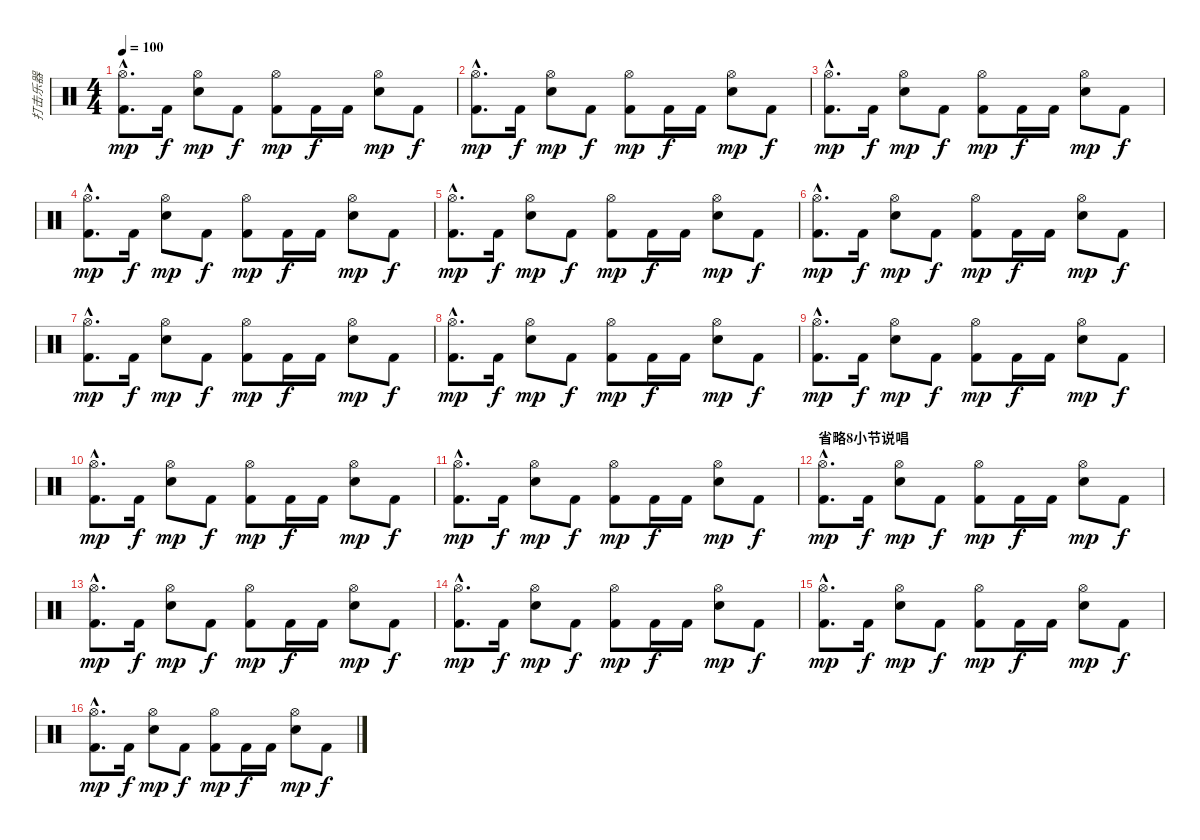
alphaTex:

\track ("打击乐器" "打击乐器") {instrument percussion}
\staff {score}
\articulation defaults
\ts (4 4)
\tempo 100
\clef neutral
\ks c
("Kick (hit) 2"{hac} "Hi-Hat (open)"{hac}).8{d dy mp} "Kick (hit) 2".16{dy f} ("Electric Snare (hit)" "Hi-Hat (open)").8{dy mp} "Kick (hit) 2".8{dy f} ("Kick (hit) 2" "Hi-Hat (open)").8{dy mp} "Kick (hit) 2".16{dy f} "Kick (hit) 2".16 ("Electric Snare (hit)" "Hi-Hat (open)").8{dy mp} "Kick (hit) 2".8{dy f} |
("Kick (hit) 2"{hac} "Hi-Hat (open)"{hac}).8{d dy mp} "Kick (hit) 2".16{dy f} ("Electric Snare (hit)" "Hi-Hat (open)").8{dy mp} "Kick (hit) 2".8{dy f} ("Kick (hit) 2" "Hi-Hat (open)").8{dy mp} "Kick (hit) 2".16{dy f} "Kick (hit) 2".16 ("Electric Snare (hit)" "Hi-Hat (open)").8{dy mp} "Kick (hit) 2".8{dy f} |
("Kick (hit) 2"{hac} "Hi-Hat (open)"{hac}).8{d dy mp} "Kick (hit) 2".16{dy f} ("Electric Snare (hit)" "Hi-Hat (open)").8{dy mp} "Kick (hit) 2".8{dy f} ("Kick (hit) 2" "Hi-Hat (open)").8{dy mp} "Kick (hit) 2".16{dy f} "Kick (hit) 2".16 ("Electric Snare (hit)" "Hi-Hat (open)").8{dy mp} "Kick (hit) 2".8{dy f} |
("Kick (hit) 2"{hac} "Hi-Hat (open)"{hac}).8{d dy mp} "Kick (hit) 2".16{dy f} ("Electric Snare (hit)" "Hi-Hat (open)").8{dy mp} "Kick (hit) 2".8{dy f} ("Kick (hit) 2" "Hi-Hat (open)").8{dy mp} "Kick (hit) 2".16{dy f} "Kick (hit) 2".16 ("Electric Snare (hit)" "Hi-Hat (open)").8{dy mp} "Kick (hit) 2".8{dy f} |
("Kick (hit) 2"{hac} "Hi-Hat (open)"{hac}).8{d dy mp} "Kick (hit) 2".16{dy f} ("Electric Snare (hit)" "Hi-Hat (open)").8{dy mp} "Kick (hit) 2".8{dy f} ("Kick (hit) 2" "Hi-Hat (open)").8{dy mp} "Kick (hit) 2".16{dy f} "Kick (hit) 2".16 ("Electric Snare (hit)" "Hi-Hat (open)").8{dy mp} "Kick (hit) 2".8{dy f} |
("Kick (hit) 2"{hac} "Hi-Hat (open)"{hac}).8{d dy mp} "Kick (hit) 2".16{dy f} ("Electric Snare (hit)" "Hi-Hat (open)").8{dy mp} "Kick (hit) 2".8{dy f} ("Kick (hit) 2" "Hi-Hat (open)").8{dy mp} "Kick (hit) 2".16{dy f} "Kick (hit) 2".16 ("Electric Snare (hit)" "Hi-Hat (open)").8{dy mp} "Kick (hit) 2".8{dy f} |
("Kick (hit) 2"{hac} "Hi-Hat (open)"{hac}).8{d dy mp} "Kick (hit) 2".16{dy f} ("Electric Snare (hit)" "Hi-Hat (open)").8{dy mp} "Kick (hit) 2".8{dy f} ("Kick (hit) 2" "Hi-Hat (open)").8{dy mp} "Kick (hit) 2".16{dy f} "Kick (hit) 2".16 ("Electric Snare (hit)" "Hi-Hat (open)").8{dy mp} "Kick (hit) 2".8{dy f} |
("Kick (hit) 2"{hac} "Hi-Hat (open)"{hac}).8{d dy mp} "Kick (hit) 2".16{dy f} ("Electric Snare (hit)" "Hi-Hat (open)").8{dy mp} "Kick (hit) 2".8{dy f} ("Kick (hit) 2" "Hi-Hat (open)").8{dy mp} "Kick (hit) 2".16{dy f} "Kick (hit) 2".16 ("Electric Snare (hit)" "Hi-Hat (open)").8{dy mp} "Kick (hit) 2".8{dy f} |
("Kick (hit) 2"{hac} "Hi-Hat (open)"{hac}).8{d dy mp} "Kick (hit) 2".16{dy f} ("Electric Snare (hit)" "Hi-Hat (open)").8{dy mp} "Kick (hit) 2".8{dy f} ("Kick (hit) 2" "Hi-Hat (open)").8{dy mp} "Kick (hit) 2".16{dy f} "Kick (hit) 2".16 ("Electric Snare (hit)" "Hi-Hat (open)").8{dy mp} "Kick (hit) 2".8{dy f} |
("Kick (hit) 2"{hac} "Hi-Hat (open)"{hac}).8{d dy mp} "Kick (hit) 2".16{dy f} ("Electric Snare (hit)" "Hi-Hat (open)").8{dy mp} "Kick (hit) 2".8{dy f} ("Kick (hit) 2" "Hi-Hat (open)").8{dy mp} "Kick (hit) 2".16{dy f} "Kick (hit) 2".16 ("Electric Snare (hit)" "Hi-Hat (open)").8{dy mp} "Kick (hit) 2".8{dy f} |
("Kick (hit) 2"{hac} "Hi-Hat (open)"{hac}).8{d dy mp} "Kick (hit) 2".16{dy f} ("Electric Snare (hit)" "Hi-Hat (open)").8{dy mp} "Kick (hit) 2".8{dy f} ("Kick (hit) 2" "Hi-Hat (open)").8{dy mp} "Kick (hit) 2".16{dy f} "Kick (hit) 2".16 ("Electric Snare (hit)" "Hi-Hat (open)").8{dy mp} "Kick (hit) 2".8{dy f} |
\section ("" "省略8小节说唱")
("Kick (hit) 2"{hac} "Hi-Hat (open)"{hac}).8{d dy mp} "Kick (hit) 2".16{dy f} ("Electric Snare (hit)" "Hi-Hat (open)").8{dy mp} "Kick (hit) 2".8{dy f} ("Kick (hit) 2" "Hi-Hat (open)").8{dy mp} "Kick (hit) 2".16{dy f} "Kick (hit) 2".16 ("Electric Snare (hit)" "Hi-Hat (open)").8{dy mp} "Kick (hit) 2".8{dy f} |
("Kick (hit) 2"{hac} "Hi-Hat (open)"{hac}).8{d dy mp} "Kick (hit) 2".16{dy f} ("Electric Snare (hit)" "Hi-Hat (open)").8{dy mp} "Kick (hit) 2".8{dy f} ("Kick (hit) 2" "Hi-Hat (open)").8{dy mp} "Kick (hit) 2".16{dy f} "Kick (hit) 2".16 ("Electric Snare (hit)" "Hi-Hat (open)").8{dy mp} "Kick (hit) 2".8{dy f} |
("Kick (hit) 2"{hac} "Hi-Hat (open)"{hac}).8{d dy mp} "Kick (hit) 2".16{dy f} ("Electric Snare (hit)" "Hi-Hat (open)").8{dy mp} "Kick (hit) 2".8{dy f} ("Kick (hit) 2" "Hi-Hat (open)").8{dy mp} "Kick (hit) 2".16{dy f} "Kick (hit) 2".16 ("Electric Snare (hit)" "Hi-Hat (open)").8{dy mp} "Kick (hit) 2".8{dy f} |
("Kick (hit) 2"{hac} "Hi-Hat (open)"{hac}).8{d dy mp} "Kick (hit) 2".16{dy f} ("Electric Snare (hit)" "Hi-Hat (open)").8{dy mp} "Kick (hit) 2".8{dy f} ("Kick (hit) 2" "Hi-Hat (open)").8{dy mp} "Kick (hit) 2".16{dy f} "Kick (hit) 2".16 ("Electric Snare (hit)" "Hi-Hat (open)").8{dy mp} "Kick (hit) 2".8{dy f} |
("Kick (hit) 2"{hac} "Hi-Hat (open)"{hac}).8{d dy mp} "Kick (hit) 2".16{dy f} ("Electric Snare (hit)" "Hi-Hat (open)").8{dy mp} "Kick (hit) 2".8{dy f} ("Kick (hit) 2" "Hi-Hat (open)").8{dy mp} "Kick (hit) 2".16{dy f} "Kick (hit) 2".16 ("Electric Snare (hit)" "Hi-Hat (open)").8{dy mp} "Kick (hit) 2".8{dy f}
